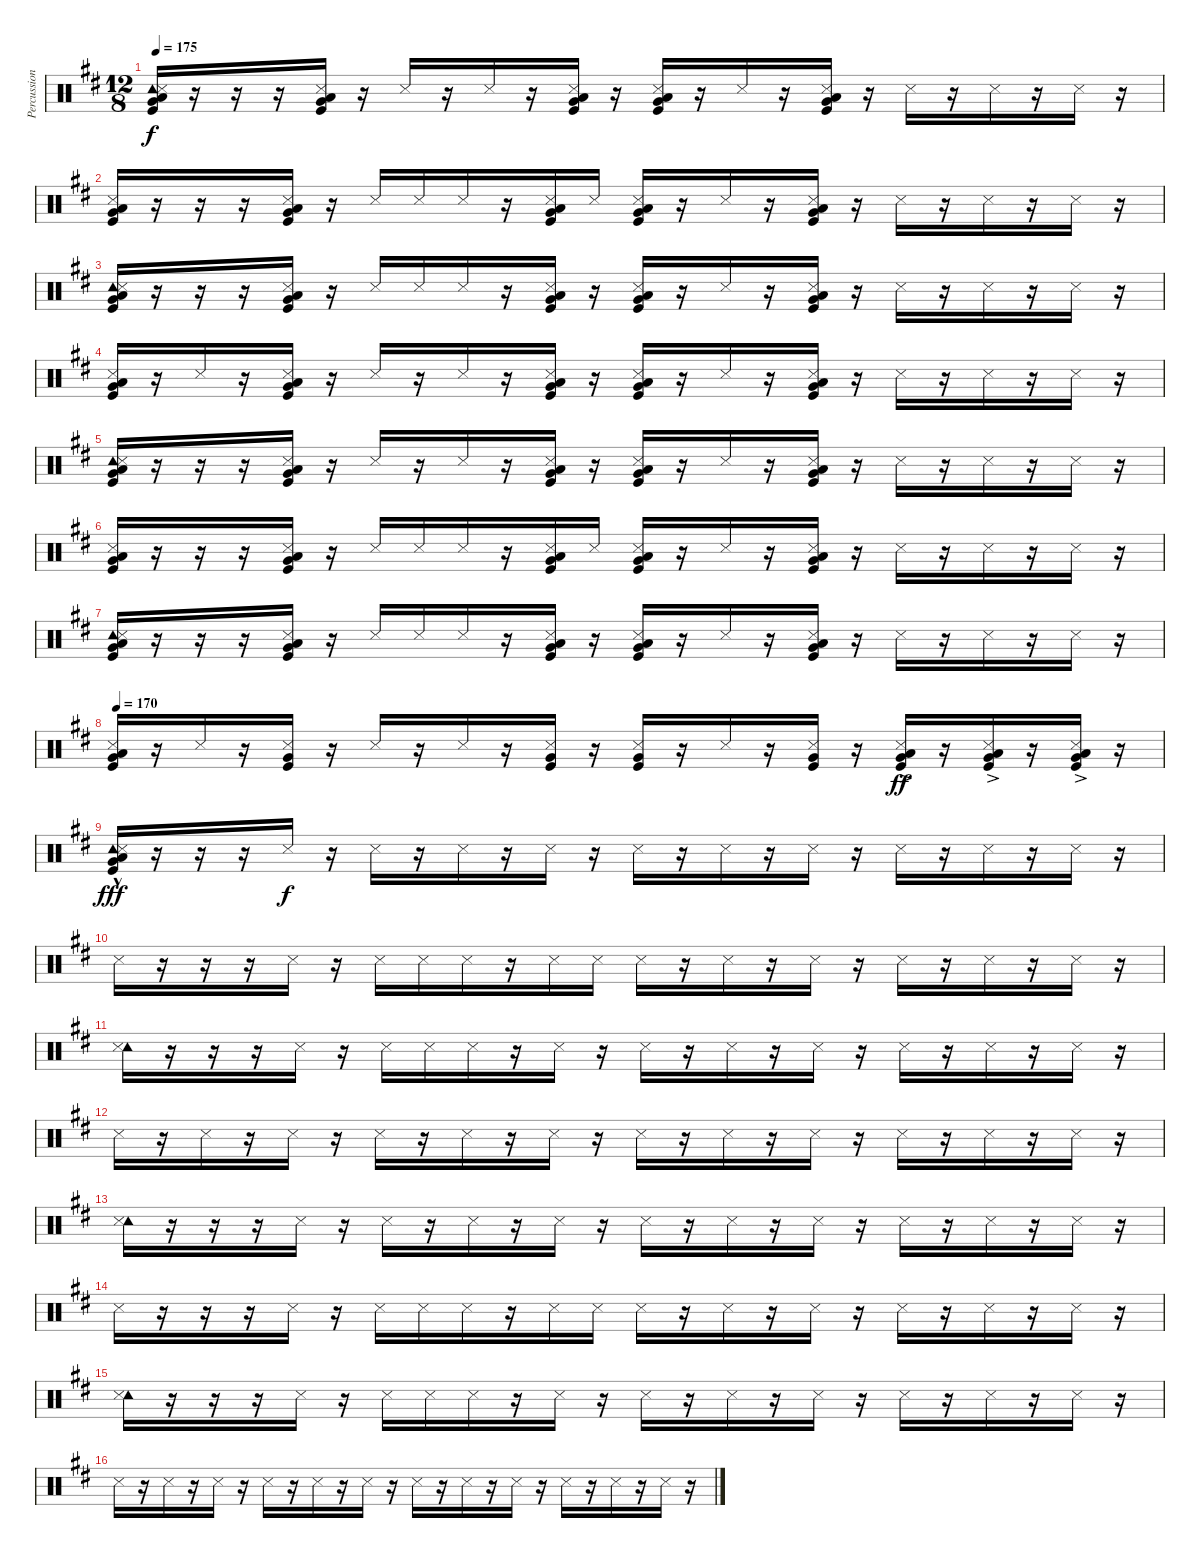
\track ("Percussion" "Percussion") {instrument percussion}
\staff {score}
\articulation defaults
\ts (12 8)
\tempo 175
\clef neutral
\ks d
("Tambourine (hit)" "Snare (side stick) 3" "Low Floor Tom (hit)" "Very Low Tom (hit)" "Kick (hit)").16{dy f} r.16 r.16 r.16 ("Snare (side stick) 3" "Low Floor Tom (hit)" "Very Low Tom (hit)" "Kick (hit)").16 r.16 "Snare (side stick) 3".16 r.16 "Snare (side stick) 3".16 r.16 ("Snare (side stick) 3" "Low Floor Tom (hit)" "Very Low Tom (hit)" "Kick (hit)").16 r.16 ("Snare (side stick) 3" "Low Floor Tom (hit)" "Very Low Tom (hit)" "Kick (hit)").16 r.16 "Snare (side stick) 3".16 r.16 ("Snare (side stick) 3" "Low Floor Tom (hit)" "Very Low Tom (hit)" "Kick (hit)").16 r.16 "Snare (side stick) 3".16 r.16 "Snare (side stick) 3".16 r.16 "Snare (side stick) 3".16 r.16 |
("Snare (side stick) 3" "Low Floor Tom (hit)" "Very Low Tom (hit)" "Kick (hit)").16 r.16 r.16 r.16 ("Snare (side stick) 3" "Low Floor Tom (hit)" "Very Low Tom (hit)" "Kick (hit)").16 r.16 "Snare (side stick) 3".16 "Snare (side stick) 3".16 "Snare (side stick) 3".16 r.16 ("Snare (side stick) 3" "Low Floor Tom (hit)" "Very Low Tom (hit)" "Kick (hit)").16 "Snare (side stick) 3".16 ("Snare (side stick) 3" "Low Floor Tom (hit)" "Very Low Tom (hit)" "Kick (hit)").16 r.16 "Snare (side stick) 3".16 r.16 ("Snare (side stick) 3" "Low Floor Tom (hit)" "Very Low Tom (hit)" "Kick (hit)").16 r.16 "Snare (side stick) 3".16 r.16 "Snare (side stick) 3".16 r.16 "Snare (side stick) 3".16 r.16 |
("Tambourine (hit)" "Snare (side stick) 3" "Low Floor Tom (hit)" "Very Low Tom (hit)" "Kick (hit)").16 r.16 r.16 r.16 ("Snare (side stick) 3" "Low Floor Tom (hit)" "Very Low Tom (hit)" "Kick (hit)").16 r.16 "Snare (side stick) 3".16 "Snare (side stick) 3".16 "Snare (side stick) 3".16 r.16 ("Snare (side stick) 3" "Low Floor Tom (hit)" "Very Low Tom (hit)" "Kick (hit)").16 r.16 ("Snare (side stick) 3" "Low Floor Tom (hit)" "Very Low Tom (hit)" "Kick (hit)").16 r.16 "Snare (side stick) 3".16 r.16 ("Snare (side stick) 3" "Low Floor Tom (hit)" "Very Low Tom (hit)" "Kick (hit)").16 r.16 "Snare (side stick) 3".16 r.16 "Snare (side stick) 3".16 r.16 "Snare (side stick) 3".16 r.16 |
("Snare (side stick) 3" "Low Floor Tom (hit)" "Very Low Tom (hit)" "Kick (hit)").16 r.16 "Snare (side stick) 3".16 r.16 ("Snare (side stick) 3" "Low Floor Tom (hit)" "Very Low Tom (hit)" "Kick (hit)").16 r.16 "Snare (side stick) 3".16 r.16 "Snare (side stick) 3".16 r.16 ("Snare (side stick) 3" "Low Floor Tom (hit)" "Very Low Tom (hit)" "Kick (hit)").16 r.16 ("Snare (side stick) 3" "Low Floor Tom (hit)" "Very Low Tom (hit)" "Kick (hit)").16 r.16 "Snare (side stick) 3".16 r.16 ("Snare (side stick) 3" "Low Floor Tom (hit)" "Very Low Tom (hit)" "Kick (hit)").16 r.16 "Snare (side stick) 3".16 r.16 "Snare (side stick) 3".16 r.16 "Snare (side stick) 3".16 r.16 |
("Tambourine (hit)" "Snare (side stick) 3" "Low Floor Tom (hit)" "Very Low Tom (hit)" "Kick (hit)").16 r.16 r.16 r.16 ("Snare (side stick) 3" "Low Floor Tom (hit)" "Very Low Tom (hit)" "Kick (hit)").16 r.16 "Snare (side stick) 3".16 r.16 "Snare (side stick) 3".16 r.16 ("Snare (side stick) 3" "Low Floor Tom (hit)" "Very Low Tom (hit)" "Kick (hit)").16 r.16 ("Snare (side stick) 3" "Low Floor Tom (hit)" "Very Low Tom (hit)" "Kick (hit)").16 r.16 "Snare (side stick) 3".16 r.16 ("Snare (side stick) 3" "Low Floor Tom (hit)" "Very Low Tom (hit)" "Kick (hit)").16 r.16 "Snare (side stick) 3".16 r.16 "Snare (side stick) 3".16 r.16 "Snare (side stick) 3".16 r.16 |
("Snare (side stick) 3" "Low Floor Tom (hit)" "Very Low Tom (hit)" "Kick (hit)").16 r.16 r.16 r.16 ("Snare (side stick) 3" "Low Floor Tom (hit)" "Very Low Tom (hit)" "Kick (hit)").16 r.16 "Snare (side stick) 3".16 "Snare (side stick) 3".16 "Snare (side stick) 3".16 r.16 ("Snare (side stick) 3" "Low Floor Tom (hit)" "Very Low Tom (hit)" "Kick (hit)").16 "Snare (side stick) 3".16 ("Snare (side stick) 3" "Low Floor Tom (hit)" "Very Low Tom (hit)" "Kick (hit)").16 r.16 "Snare (side stick) 3".16 r.16 ("Snare (side stick) 3" "Low Floor Tom (hit)" "Very Low Tom (hit)" "Kick (hit)").16 r.16 "Snare (side stick) 3".16 r.16 "Snare (side stick) 3".16 r.16 "Snare (side stick) 3".16 r.16 |
("Tambourine (hit)" "Snare (side stick) 3" "Low Floor Tom (hit)" "Very Low Tom (hit)" "Kick (hit)").16 r.16 r.16 r.16 ("Snare (side stick) 3" "Low Floor Tom (hit)" "Very Low Tom (hit)" "Kick (hit)").16 r.16 "Snare (side stick) 3".16 "Snare (side stick) 3".16 "Snare (side stick) 3".16 r.16 ("Snare (side stick) 3" "Low Floor Tom (hit)" "Very Low Tom (hit)" "Kick (hit)").16 r.16 ("Snare (side stick) 3" "Low Floor Tom (hit)" "Very Low Tom (hit)" "Kick (hit)").16 r.16 "Snare (side stick) 3".16 r.16 ("Snare (side stick) 3" "Low Floor Tom (hit)" "Very Low Tom (hit)" "Kick (hit)").16 r.16 "Snare (side stick) 3".16 r.16 "Snare (side stick) 3".16 r.16 "Snare (side stick) 3".16 r.16 |
\tempo 170
("Snare (side stick) 3" "Low Floor Tom (hit)" "Very Low Tom (hit)" "Kick (hit)").16 r.16 "Snare (side stick) 3".16 r.16 ("Snare (side stick) 3" "Very Low Tom (hit)" "Kick (hit)").16 r.16 "Snare (side stick) 3".16 r.16 "Snare (side stick) 3".16 r.16 ("Snare (side stick) 3" "Very Low Tom (hit)" "Kick (hit)").16 r.16 ("Snare (side stick) 3" "Very Low Tom (hit)" "Kick (hit)").16 r.16 "Snare (side stick) 3".16 r.16 ("Snare (side stick) 3" "Very Low Tom (hit)" "Kick (hit)").16 r.16 ("Snare (side stick) 3" "Low Floor Tom (hit)" "Very Low Tom (hit)"{ac} "Kick (hit)").16{dy ff} r.16 ("Snare (side stick) 3" "Low Floor Tom (hit)"{ac} "Very Low Tom (hit)" "Kick (hit)").16 r.16 ("Snare (side stick) 3" "Low Floor Tom (hit)" "Very Low Tom (hit)" "Kick (hit)"{ac}).16 r.16 |
("Tambourine (hit)" "Snare (side stick) 3" "Low Floor Tom (hit)"{hac} "Very Low Tom (hit)" "Kick (hit)").16{dy fff} r.16 r.16 r.16 "Snare (side stick) 3".16{dy f} r.16 "Snare (side stick) 3".16 r.16 "Snare (side stick) 3".16 r.16 "Snare (side stick) 3".16 r.16 "Snare (side stick) 3".16 r.16 "Snare (side stick) 3".16 r.16 "Snare (side stick) 3".16 r.16 "Snare (side stick) 3".16 r.16 "Snare (side stick) 3".16 r.16 "Snare (side stick) 3".16 r.16 |
"Snare (side stick) 3".16 r.16 r.16 r.16 "Snare (side stick) 3".16 r.16 "Snare (side stick) 3".16 "Snare (side stick) 3".16 "Snare (side stick) 3".16 r.16 "Snare (side stick) 3".16 "Snare (side stick) 3".16 "Snare (side stick) 3".16 r.16 "Snare (side stick) 3".16 r.16 "Snare (side stick) 3".16 r.16 "Snare (side stick) 3".16 r.16 "Snare (side stick) 3".16 r.16 "Snare (side stick) 3".16 r.16 |
("Tambourine (hit)" "Snare (side stick) 3").16 r.16 r.16 r.16 "Snare (side stick) 3".16 r.16 "Snare (side stick) 3".16 "Snare (side stick) 3".16 "Snare (side stick) 3".16 r.16 "Snare (side stick) 3".16 r.16 "Snare (side stick) 3".16 r.16 "Snare (side stick) 3".16 r.16 "Snare (side stick) 3".16 r.16 "Snare (side stick) 3".16 r.16 "Snare (side stick) 3".16 r.16 "Snare (side stick) 3".16 r.16 |
"Snare (side stick) 3".16 r.16 "Snare (side stick) 3".16 r.16 "Snare (side stick) 3".16 r.16 "Snare (side stick) 3".16 r.16 "Snare (side stick) 3".16 r.16 "Snare (side stick) 3".16 r.16 "Snare (side stick) 3".16 r.16 "Snare (side stick) 3".16 r.16 "Snare (side stick) 3".16 r.16 "Snare (side stick) 3".16 r.16 "Snare (side stick) 3".16 r.16 "Snare (side stick) 3".16 r.16 |
("Tambourine (hit)" "Snare (side stick) 3").16 r.16 r.16 r.16 "Snare (side stick) 3".16 r.16 "Snare (side stick) 3".16 r.16 "Snare (side stick) 3".16 r.16 "Snare (side stick) 3".16 r.16 "Snare (side stick) 3".16 r.16 "Snare (side stick) 3".16 r.16 "Snare (side stick) 3".16 r.16 "Snare (side stick) 3".16 r.16 "Snare (side stick) 3".16 r.16 "Snare (side stick) 3".16 r.16 |
"Snare (side stick) 3".16 r.16 r.16 r.16 "Snare (side stick) 3".16 r.16 "Snare (side stick) 3".16 "Snare (side stick) 3".16 "Snare (side stick) 3".16 r.16 "Snare (side stick) 3".16 "Snare (side stick) 3".16 "Snare (side stick) 3".16 r.16 "Snare (side stick) 3".16 r.16 "Snare (side stick) 3".16 r.16 "Snare (side stick) 3".16 r.16 "Snare (side stick) 3".16 r.16 "Snare (side stick) 3".16 r.16 |
("Tambourine (hit)" "Snare (side stick) 3").16 r.16 r.16 r.16 "Snare (side stick) 3".16 r.16 "Snare (side stick) 3".16 "Snare (side stick) 3".16 "Snare (side stick) 3".16 r.16 "Snare (side stick) 3".16 r.16 "Snare (side stick) 3".16 r.16 "Snare (side stick) 3".16 r.16 "Snare (side stick) 3".16 r.16 "Snare (side stick) 3".16 r.16 "Snare (side stick) 3".16 r.16 "Snare (side stick) 3".16 r.16 |
"Snare (side stick) 3".16 r.16 "Snare (side stick) 3".16 r.16 "Snare (side stick) 3".16 r.16 "Snare (side stick) 3".16 r.16 "Snare (side stick) 3".16 r.16 "Snare (side stick) 3".16 r.16 "Snare (side stick) 3".16 r.16 "Snare (side stick) 3".16 r.16 "Snare (side stick) 3".16 r.16 "Snare (side stick) 3".16 r.16 "Snare (side stick) 3".16 r.16 "Snare (side stick) 3".16 r.16
